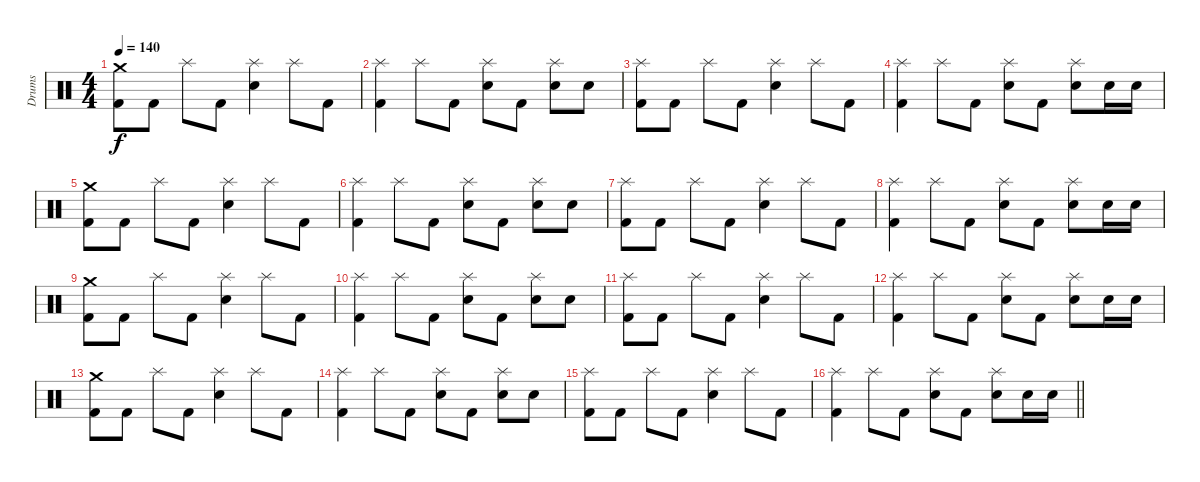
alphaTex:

\track ("Drums" "Drums") {instrument percussion}
\staff {score}
\articulation defaults
\ts (4 4)
\tempo 140
\clef neutral
\ks c
("Crash medium (hit)" "Kick (hit) 2").8{dy f} "Kick (hit) 2".8 "Splash (hit)".8 "Kick (hit) 2".8 ("Splash (hit)" "Snare (hit) 2").4 "Splash (hit)".8 "Kick (hit) 2".8 |
("Splash (hit)" "Kick (hit) 2").4 "Splash (hit)".8 "Kick (hit) 2".8 ("Splash (hit)" "Snare (hit) 2").8 "Kick (hit) 2".8 ("Splash (hit)" "Snare (hit) 2").8 "Snare (hit) 2".8 |
("Splash (hit)" "Kick (hit) 2").8 "Kick (hit) 2".8 "Splash (hit)".8 "Kick (hit) 2".8 ("Splash (hit)" "Snare (hit) 2").4 "Splash (hit)".8 "Kick (hit) 2".8 |
("Splash (hit)" "Kick (hit) 2").4 "Splash (hit)".8 "Kick (hit) 2".8 ("Splash (hit)" "Snare (hit) 2").8 "Kick (hit) 2".8 ("Splash (hit)" "Snare (hit) 2").8 "Snare (hit) 2".16 "Snare (hit) 2".16 |
("Crash medium (hit)" "Kick (hit) 2").8 "Kick (hit) 2".8 "Splash (hit)".8 "Kick (hit) 2".8 ("Splash (hit)" "Snare (hit) 2").4 "Splash (hit)".8 "Kick (hit) 2".8 |
("Splash (hit)" "Kick (hit) 2").4 "Splash (hit)".8 "Kick (hit) 2".8 ("Splash (hit)" "Snare (hit) 2").8 "Kick (hit) 2".8 ("Splash (hit)" "Snare (hit) 2").8 "Snare (hit) 2".8 |
("Splash (hit)" "Kick (hit) 2").8 "Kick (hit) 2".8 "Splash (hit)".8 "Kick (hit) 2".8 ("Splash (hit)" "Snare (hit) 2").4 "Splash (hit)".8 "Kick (hit) 2".8 |
("Splash (hit)" "Kick (hit) 2").4 "Splash (hit)".8 "Kick (hit) 2".8 ("Splash (hit)" "Snare (hit) 2").8 "Kick (hit) 2".8 ("Splash (hit)" "Snare (hit) 2").8 "Snare (hit) 2".16 "Snare (hit) 2".16 |
("Crash medium (hit)" "Kick (hit) 2").8 "Kick (hit) 2".8 "Splash (hit)".8 "Kick (hit) 2".8 ("Splash (hit)" "Snare (hit) 2").4 "Splash (hit)".8 "Kick (hit) 2".8 |
("Splash (hit)" "Kick (hit) 2").4 "Splash (hit)".8 "Kick (hit) 2".8 ("Splash (hit)" "Snare (hit) 2").8 "Kick (hit) 2".8 ("Splash (hit)" "Snare (hit) 2").8 "Snare (hit) 2".8 |
("Splash (hit)" "Kick (hit) 2").8 "Kick (hit) 2".8 "Splash (hit)".8 "Kick (hit) 2".8 ("Splash (hit)" "Snare (hit) 2").4 "Splash (hit)".8 "Kick (hit) 2".8 |
("Splash (hit)" "Kick (hit) 2").4 "Splash (hit)".8 "Kick (hit) 2".8 ("Splash (hit)" "Snare (hit) 2").8 "Kick (hit) 2".8 ("Splash (hit)" "Snare (hit) 2").8 "Snare (hit) 2".16 "Snare (hit) 2".16 |
("Crash medium (hit)" "Kick (hit) 2").8 "Kick (hit) 2".8 "Splash (hit)".8 "Kick (hit) 2".8 ("Splash (hit)" "Snare (hit) 2").4 "Splash (hit)".8 "Kick (hit) 2".8 |
("Splash (hit)" "Kick (hit) 2").4 "Splash (hit)".8 "Kick (hit) 2".8 ("Splash (hit)" "Snare (hit) 2").8 "Kick (hit) 2".8 ("Splash (hit)" "Snare (hit) 2").8 "Snare (hit) 2".8 |
("Splash (hit)" "Kick (hit) 2").8 "Kick (hit) 2".8 "Splash (hit)".8 "Kick (hit) 2".8 ("Splash (hit)" "Snare (hit) 2").4 "Splash (hit)".8 "Kick (hit) 2".8 |
\barLineRight lightlight
("Splash (hit)" "Kick (hit) 2").4 "Splash (hit)".8 "Kick (hit) 2".8 ("Splash (hit)" "Snare (hit) 2").8 "Kick (hit) 2".8 ("Splash (hit)" "Snare (hit) 2").8 "Snare (hit) 2".16 "Snare (hit) 2".16
